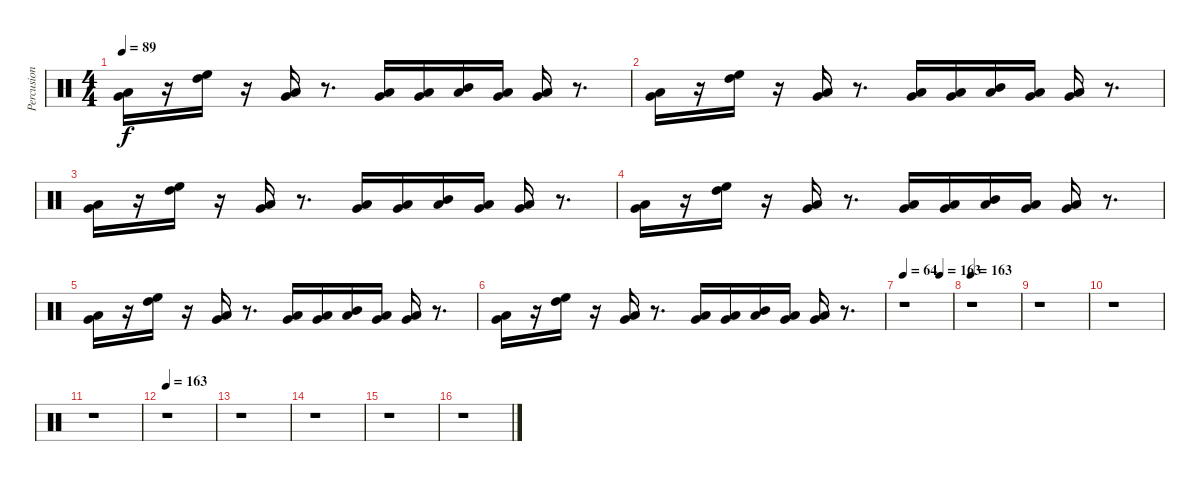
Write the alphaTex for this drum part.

\track ("Percusion" "Percusion") {instrument percussion}
\staff {score}
\articulation defaults
\ts (4 4)
\tempo 89
\clef neutral
\ks c
("Very Low Tom (hit)" "Low Floor Tom (hit)").16{dy f} r.16 ("High Floor Tom (hit)" "High Tom (hit)").16 r.16 ("Very Low Tom (hit)" "Low Floor Tom (hit)").16 r.8{d} ("Very Low Tom (hit)" "Low Floor Tom (hit)").16 ("Very Low Tom (hit)" "Low Floor Tom (hit)").16 ("Mid Tom (hit)" "Low Floor Tom (hit)").16 ("Very Low Tom (hit)" "Low Floor Tom (hit)").16 ("Very Low Tom (hit)" "Low Floor Tom (hit)").16 r.8{d} |
("Very Low Tom (hit)" "Low Floor Tom (hit)").16 r.16 ("High Floor Tom (hit)" "High Tom (hit)").16 r.16 ("Very Low Tom (hit)" "Low Floor Tom (hit)").16 r.8{d} ("Very Low Tom (hit)" "Low Floor Tom (hit)").16 ("Very Low Tom (hit)" "Low Floor Tom (hit)").16 ("Mid Tom (hit)" "Low Floor Tom (hit)").16 ("Very Low Tom (hit)" "Low Floor Tom (hit)").16 ("Very Low Tom (hit)" "Low Floor Tom (hit)").16 r.8{d} |
("Very Low Tom (hit)" "Low Floor Tom (hit)").16 r.16 ("High Floor Tom (hit)" "High Tom (hit)").16 r.16 ("Very Low Tom (hit)" "Low Floor Tom (hit)").16 r.8{d} ("Very Low Tom (hit)" "Low Floor Tom (hit)").16 ("Very Low Tom (hit)" "Low Floor Tom (hit)").16 ("Mid Tom (hit)" "Low Floor Tom (hit)").16 ("Very Low Tom (hit)" "Low Floor Tom (hit)").16 ("Very Low Tom (hit)" "Low Floor Tom (hit)").16 r.8{d} |
("Very Low Tom (hit)" "Low Floor Tom (hit)").16 r.16 ("High Floor Tom (hit)" "High Tom (hit)").16 r.16 ("Very Low Tom (hit)" "Low Floor Tom (hit)").16 r.8{d} ("Very Low Tom (hit)" "Low Floor Tom (hit)").16 ("Very Low Tom (hit)" "Low Floor Tom (hit)").16 ("Mid Tom (hit)" "Low Floor Tom (hit)").16 ("Very Low Tom (hit)" "Low Floor Tom (hit)").16 ("Very Low Tom (hit)" "Low Floor Tom (hit)").16 r.8{d} |
("Very Low Tom (hit)" "Low Floor Tom (hit)").16 r.16 ("High Floor Tom (hit)" "High Tom (hit)").16 r.16 ("Very Low Tom (hit)" "Low Floor Tom (hit)").16 r.8{d} ("Very Low Tom (hit)" "Low Floor Tom (hit)").16 ("Very Low Tom (hit)" "Low Floor Tom (hit)").16 ("Mid Tom (hit)" "Low Floor Tom (hit)").16 ("Very Low Tom (hit)" "Low Floor Tom (hit)").16 ("Very Low Tom (hit)" "Low Floor Tom (hit)").16 r.8{d} |
("Very Low Tom (hit)" "Low Floor Tom (hit)").16 r.16 ("High Floor Tom (hit)" "High Tom (hit)").16 r.16 ("Very Low Tom (hit)" "Low Floor Tom (hit)").16 r.8{d} ("Very Low Tom (hit)" "Low Floor Tom (hit)").16 ("Very Low Tom (hit)" "Low Floor Tom (hit)").16 ("Mid Tom (hit)" "Low Floor Tom (hit)").16 ("Very Low Tom (hit)" "Low Floor Tom (hit)").16 ("Very Low Tom (hit)" "Low Floor Tom (hit)").16 r.8{d} |
\tempo 64
\tempo (163 0.75)
r.1 |
\tempo 163
r.1 |
r.1 |
r.1 |
r.1 |
\tempo 163
r.1 |
r.1 |
r.1 |
r.1 |
r.1
